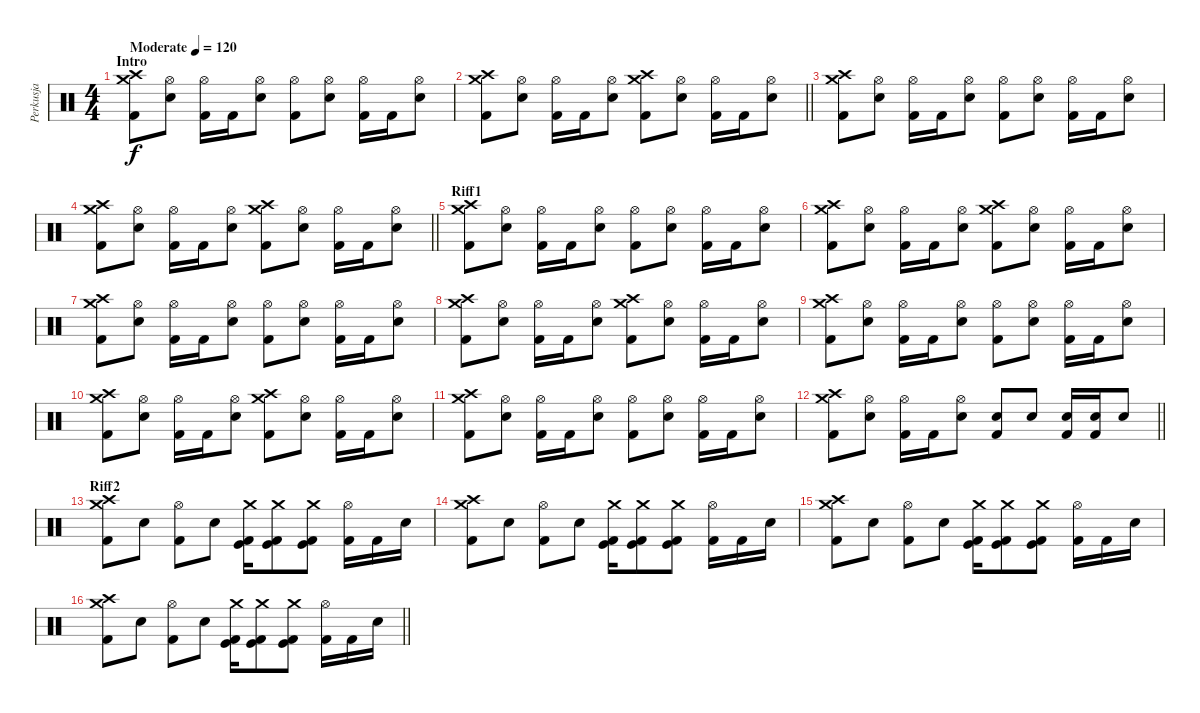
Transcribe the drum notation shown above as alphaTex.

\track ("Perkusja" "Perkusja") {instrument percussion}
\staff {score}
\articulation defaults
\ts (4 4)
\section ("" "Intro")
\tempo (120 "Moderate")
\clef neutral
\ks c
("Crash high (hit)" "Crash medium (hit)" "Kick (hit) 2").8{dy f} ("Hi-Hat (open)" "Electric Snare (hit)").8 ("Hi-Hat (open)" "Kick (hit) 2").16 "Kick (hit) 2".16 ("Hi-Hat (open)" "Electric Snare (hit)").8 ("Hi-Hat (open)" "Kick (hit) 2").8 ("Hi-Hat (open)" "Electric Snare (hit)").8 ("Hi-Hat (open)" "Kick (hit) 2").16 "Kick (hit) 2".16 ("Hi-Hat (open)" "Electric Snare (hit)").8 |
\barLineRight lightlight
("Crash high (hit)" "Crash medium (hit)" "Kick (hit) 2").8 ("Hi-Hat (open)" "Electric Snare (hit)").8 ("Hi-Hat (open)" "Kick (hit) 2").16 "Kick (hit) 2".16 ("Hi-Hat (open)" "Electric Snare (hit)").8 ("Crash high (hit)" "Crash medium (hit)" "Kick (hit) 2").8 ("Hi-Hat (open)" "Electric Snare (hit)").8 ("Hi-Hat (open)" "Kick (hit) 2").16 "Kick (hit) 2".16 ("Hi-Hat (open)" "Electric Snare (hit)").8 |
("Crash high (hit)" "Crash medium (hit)" "Kick (hit) 2").8 ("Hi-Hat (open)" "Electric Snare (hit)").8 ("Hi-Hat (open)" "Kick (hit) 2").16 "Kick (hit) 2".16 ("Hi-Hat (open)" "Electric Snare (hit)").8 ("Hi-Hat (open)" "Kick (hit) 2").8 ("Hi-Hat (open)" "Electric Snare (hit)").8 ("Hi-Hat (open)" "Kick (hit) 2").16 "Kick (hit) 2".16 ("Hi-Hat (open)" "Electric Snare (hit)").8 |
\barLineRight lightlight
("Crash high (hit)" "Crash medium (hit)" "Kick (hit) 2").8 ("Hi-Hat (open)" "Electric Snare (hit)").8 ("Hi-Hat (open)" "Kick (hit) 2").16 "Kick (hit) 2".16 ("Hi-Hat (open)" "Electric Snare (hit)").8 ("Crash high (hit)" "Crash medium (hit)" "Kick (hit) 2").8 ("Hi-Hat (open)" "Electric Snare (hit)").8 ("Hi-Hat (open)" "Kick (hit) 2").16 "Kick (hit) 2".16 ("Hi-Hat (open)" "Electric Snare (hit)").8 |
\section ("" "Riff1")
("Crash high (hit)" "Crash medium (hit)" "Kick (hit) 2").8 ("Hi-Hat (open)" "Electric Snare (hit)").8 ("Hi-Hat (open)" "Kick (hit) 2").16 "Kick (hit) 2".16 ("Hi-Hat (open)" "Electric Snare (hit)").8 ("Hi-Hat (open)" "Kick (hit) 2").8 ("Hi-Hat (open)" "Electric Snare (hit)").8 ("Hi-Hat (open)" "Kick (hit) 2").16 "Kick (hit) 2".16 ("Hi-Hat (open)" "Electric Snare (hit)").8 |
("Crash high (hit)" "Crash medium (hit)" "Kick (hit) 2").8 ("Hi-Hat (open)" "Electric Snare (hit)").8 ("Hi-Hat (open)" "Kick (hit) 2").16 "Kick (hit) 2".16 ("Hi-Hat (open)" "Electric Snare (hit)").8 ("Crash high (hit)" "Crash medium (hit)" "Kick (hit) 2").8 ("Hi-Hat (open)" "Electric Snare (hit)").8 ("Hi-Hat (open)" "Kick (hit) 2").16 "Kick (hit) 2".16 ("Hi-Hat (open)" "Electric Snare (hit)").8 |
("Crash high (hit)" "Crash medium (hit)" "Kick (hit) 2").8 ("Hi-Hat (open)" "Electric Snare (hit)").8 ("Hi-Hat (open)" "Kick (hit) 2").16 "Kick (hit) 2".16 ("Hi-Hat (open)" "Electric Snare (hit)").8 ("Hi-Hat (open)" "Kick (hit) 2").8 ("Hi-Hat (open)" "Electric Snare (hit)").8 ("Hi-Hat (open)" "Kick (hit) 2").16 "Kick (hit) 2".16 ("Hi-Hat (open)" "Electric Snare (hit)").8 |
("Crash high (hit)" "Crash medium (hit)" "Kick (hit) 2").8 ("Hi-Hat (open)" "Electric Snare (hit)").8 ("Hi-Hat (open)" "Kick (hit) 2").16 "Kick (hit) 2".16 ("Hi-Hat (open)" "Electric Snare (hit)").8 ("Crash high (hit)" "Crash medium (hit)" "Kick (hit) 2").8 ("Hi-Hat (open)" "Electric Snare (hit)").8 ("Hi-Hat (open)" "Kick (hit) 2").16 "Kick (hit) 2".16 ("Hi-Hat (open)" "Electric Snare (hit)").8 |
("Crash high (hit)" "Crash medium (hit)" "Kick (hit) 2").8 ("Hi-Hat (open)" "Electric Snare (hit)").8 ("Hi-Hat (open)" "Kick (hit) 2").16 "Kick (hit) 2".16 ("Hi-Hat (open)" "Electric Snare (hit)").8 ("Hi-Hat (open)" "Kick (hit) 2").8 ("Hi-Hat (open)" "Electric Snare (hit)").8 ("Hi-Hat (open)" "Kick (hit) 2").16 "Kick (hit) 2".16 ("Hi-Hat (open)" "Electric Snare (hit)").8 |
("Crash high (hit)" "Crash medium (hit)" "Kick (hit) 2").8 ("Hi-Hat (open)" "Electric Snare (hit)").8 ("Hi-Hat (open)" "Kick (hit) 2").16 "Kick (hit) 2".16 ("Hi-Hat (open)" "Electric Snare (hit)").8 ("Crash high (hit)" "Crash medium (hit)" "Kick (hit) 2").8 ("Hi-Hat (open)" "Electric Snare (hit)").8 ("Hi-Hat (open)" "Kick (hit) 2").16 "Kick (hit) 2".16 ("Hi-Hat (open)" "Electric Snare (hit)").8 |
("Crash high (hit)" "Crash medium (hit)" "Kick (hit) 2").8 ("Hi-Hat (open)" "Electric Snare (hit)").8 ("Hi-Hat (open)" "Kick (hit) 2").16 "Kick (hit) 2".16 ("Hi-Hat (open)" "Electric Snare (hit)").8 ("Hi-Hat (open)" "Kick (hit) 2").8 ("Hi-Hat (open)" "Electric Snare (hit)").8 ("Hi-Hat (open)" "Kick (hit) 2").16 "Kick (hit) 2".16 ("Hi-Hat (open)" "Electric Snare (hit)").8 |
\barLineRight lightlight
("Crash high (hit)" "Crash medium (hit)" "Kick (hit) 2").8 ("Hi-Hat (open)" "Electric Snare (hit)").8 ("Hi-Hat (open)" "Kick (hit) 2").16 "Kick (hit) 2".16 ("Hi-Hat (open)" "Electric Snare (hit)").8 ("Electric Snare (hit)" "Kick (hit) 2").8 "Electric Snare (hit)".8 ("Electric Snare (hit)" "Kick (hit) 2").16 ("Electric Snare (hit)" "Kick (hit) 2").16 "Electric Snare (hit)".8 |
\section ("" "Riff2")
("Crash high (hit)" "Crash medium (hit)" "Kick (hit) 2").8 "Electric Snare (hit)".8 ("Hi-Hat (open)" "Kick (hit) 2").8 "Electric Snare (hit)".8 ("Crash medium (hit)" "Kick (hit)" "Kick (hit) 2").16 ("Crash medium (hit)" "Kick (hit)" "Kick (hit) 2").8 ("Crash medium (hit)" "Kick (hit)" "Kick (hit) 2").8 ("Hi-Hat (open)" "Kick (hit) 2").16 "Kick (hit) 2".16 "Electric Snare (hit)".16 |
("Crash high (hit)" "Crash medium (hit)" "Kick (hit) 2").8 "Electric Snare (hit)".8 ("Hi-Hat (open)" "Kick (hit) 2").8 "Electric Snare (hit)".8 ("Crash medium (hit)" "Kick (hit)" "Kick (hit) 2").16 ("Crash medium (hit)" "Kick (hit)" "Kick (hit) 2").8 ("Crash medium (hit)" "Kick (hit)" "Kick (hit) 2").8 ("Hi-Hat (open)" "Kick (hit) 2").16 "Kick (hit) 2".16 "Electric Snare (hit)".16 |
("Crash high (hit)" "Crash medium (hit)" "Kick (hit) 2").8 "Electric Snare (hit)".8 ("Hi-Hat (open)" "Kick (hit) 2").8 "Electric Snare (hit)".8 ("Crash medium (hit)" "Kick (hit)" "Kick (hit) 2").16 ("Crash medium (hit)" "Kick (hit)" "Kick (hit) 2").8 ("Crash medium (hit)" "Kick (hit)" "Kick (hit) 2").8 ("Hi-Hat (open)" "Kick (hit) 2").16 "Kick (hit) 2".16 "Electric Snare (hit)".16 |
\barLineRight lightlight
("Crash high (hit)" "Crash medium (hit)" "Kick (hit) 2").8 "Electric Snare (hit)".8 ("Hi-Hat (open)" "Kick (hit) 2").8 "Electric Snare (hit)".8 ("Crash medium (hit)" "Kick (hit)" "Kick (hit) 2").16 ("Crash medium (hit)" "Kick (hit)" "Kick (hit) 2").8 ("Crash medium (hit)" "Kick (hit)" "Kick (hit) 2").8 ("Hi-Hat (open)" "Kick (hit) 2").16 "Kick (hit) 2".16 "Electric Snare (hit)".16
